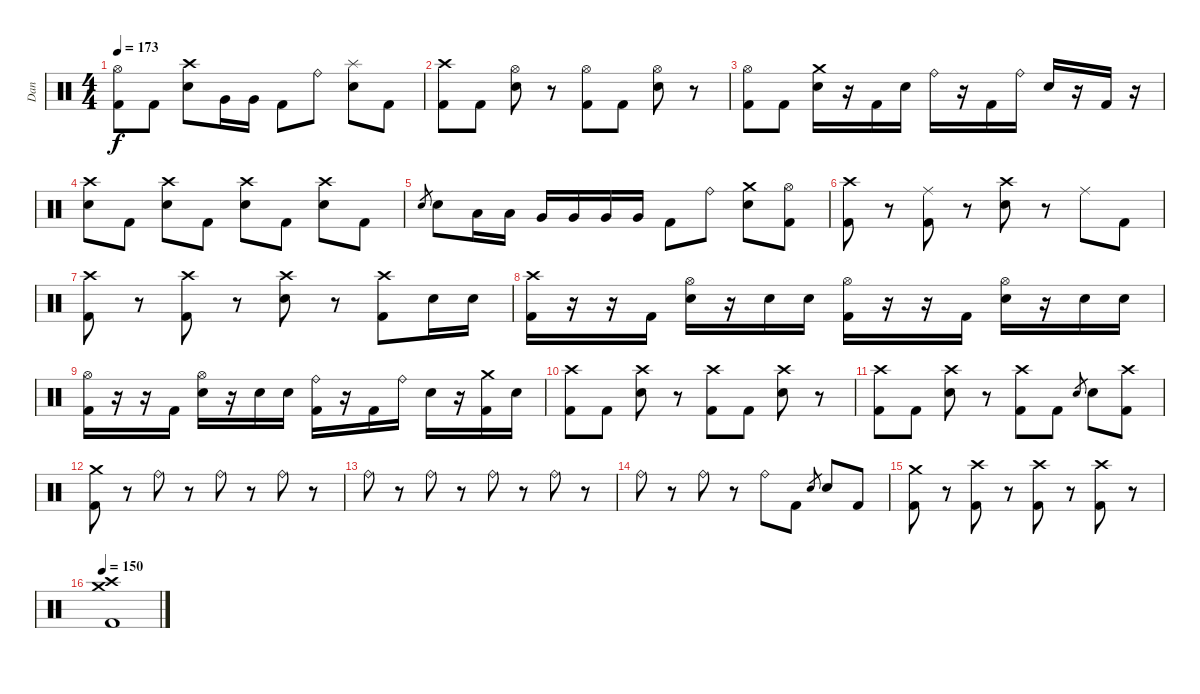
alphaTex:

\track ("Dan" "Dan") {instrument percussion}
\staff {score}
\articulation defaults
\ts (4 4)
\tempo 173
\clef neutral
\ks c
("Hi-Hat (open)" "Kick (hit) 2").8{dy f} "Kick (hit) 2".8 ("Crash high (hit)" "Electric Snare (hit)").8 "Very Low Tom (hit)".16 "Very Low Tom (hit)".16 "Kick (hit) 2".8 "Ride (bell)".8 ("Splash (hit)" "Electric Snare (hit)").8 "Kick (hit) 2".8 |
("Crash high (hit)" "Kick (hit) 2").8 "Kick (hit) 2".8 ("Hi-Hat (open)" "Electric Snare (hit)").8 r.8 ("Hi-Hat (open)" "Kick (hit) 2").8 "Kick (hit) 2".8 ("Hi-Hat (open)" "Electric Snare (hit)").8 r.8 |
("Hi-Hat (open)" "Kick (hit) 2").8 "Kick (hit) 2".8 ("Crash medium (hit)" "Electric Snare (hit)").16 r.16 "Kick (hit) 2".16 "Electric Snare (hit)".16 "Ride (bell)".16 r.16 "Kick (hit) 2".16 "Ride (bell)".16 "Electric Snare (hit)".16 r.16 "Kick (hit) 2".16 r.16 |
("Crash high (hit)" "Electric Snare (hit)").8 "Kick (hit) 2".8 ("Crash high (hit)" "Electric Snare (hit)").8 "Kick (hit) 2".8 ("Crash high (hit)" "Electric Snare (hit)").8 "Kick (hit) 2".8 ("Crash high (hit)" "Electric Snare (hit)").8 "Kick (hit) 2".8 |
"Electric Snare (hit)".8{gr} "Electric Snare (hit)".8 "Low Tom (hit)".16 "Low Tom (hit)".16 "Very Low Tom (hit)".16 "Very Low Tom (hit)".16 "Very Low Tom (hit)".16 "Very Low Tom (hit)".16 "Kick (hit) 2".8 "Ride (bell)".8 ("Crash medium (hit)" "Electric Snare (hit)").8 ("Hi-Hat (open)" "Kick (hit) 2").8 |
("Crash high (hit)" "Kick (hit) 2").8 r.8 ("Ride (middle)" "Kick (hit) 2").8 r.8 ("Crash high (hit)" "Electric Snare (hit)").8 r.8 "Ride (middle)".8 "Kick (hit) 2".8 |
("Crash high (hit)" "Kick (hit) 2").8 r.8 ("Crash high (hit)" "Kick (hit) 2").8 r.8 ("Crash high (hit)" "Electric Snare (hit)").8 r.8 ("Crash high (hit)" "Kick (hit) 2").8 "Electric Snare (hit)".16 "Electric Snare (hit)".16 |
("Crash high (hit)" "Kick (hit) 2").16 r.16 r.16 "Kick (hit) 2".16 ("Hi-Hat (open)" "Electric Snare (hit)").16 r.16 "Electric Snare (hit)".16 "Electric Snare (hit)".16 ("Hi-Hat (open)" "Kick (hit) 2").16 r.16 r.16 "Kick (hit) 2".16 ("Hi-Hat (open)" "Electric Snare (hit)").16 r.16 "Electric Snare (hit)".16 "Electric Snare (hit)".16 |
("Hi-Hat (open)" "Kick (hit) 2").16 r.16 r.16 "Kick (hit) 2".16 ("Hi-Hat (open)" "Electric Snare (hit)").16 r.16 "Electric Snare (hit)".16 "Electric Snare (hit)".16 ("Ride (bell)" "Kick (hit) 2").16 r.16 "Kick (hit) 2".16 "Ride (bell)".16 "Electric Snare (hit)".16 r.16 ("Crash medium (hit)" "Kick (hit) 2").16 "Electric Snare (hit)".16 |
("Crash high (hit)" "Kick (hit) 2").8 "Kick (hit) 2".8 ("Crash high (hit)" "Electric Snare (hit)").8 r.8 ("Crash high (hit)" "Kick (hit) 2").8 "Kick (hit) 2".8 ("Crash high (hit)" "Electric Snare (hit)").8 r.8 |
("Crash high (hit)" "Kick (hit) 2").8 "Kick (hit) 2".8 ("Crash high (hit)" "Electric Snare (hit)").8 r.8 ("Crash high (hit)" "Kick (hit) 2").8 "Kick (hit) 2".8 "Electric Snare (hit)".8{gr} "Electric Snare (hit)".8 ("Crash high (hit)" "Kick (hit) 2").8 |
("Crash medium (hit)" "Kick (hit) 2").8 r.8 "Ride (bell)".8 r.8 "Ride (bell)".8 r.8 "Ride (bell)".8 r.8 |
"Ride (bell)".8 r.8 "Ride (bell)".8 r.8 "Ride (bell)".8 r.8 "Ride (bell)".8 r.8 |
"Ride (bell)".8 r.8 "Ride (bell)".8 r.8 "Ride (bell)".8 "Kick (hit) 2".8 "Electric Snare (hit)".8{gr} "Electric Snare (hit)".8 "Kick (hit) 2".8 |
("Crash medium (hit)" "Kick (hit) 2").8 r.8 ("Crash high (hit)" "Kick (hit) 2").8 r.8 ("Crash high (hit)" "Kick (hit) 2").8 r.8 ("Crash high (hit)" "Kick (hit) 2").8 r.8 |
\tempo 150
("Crash medium (hit)" "Crash high (hit)" "Kick (hit) 2").1
